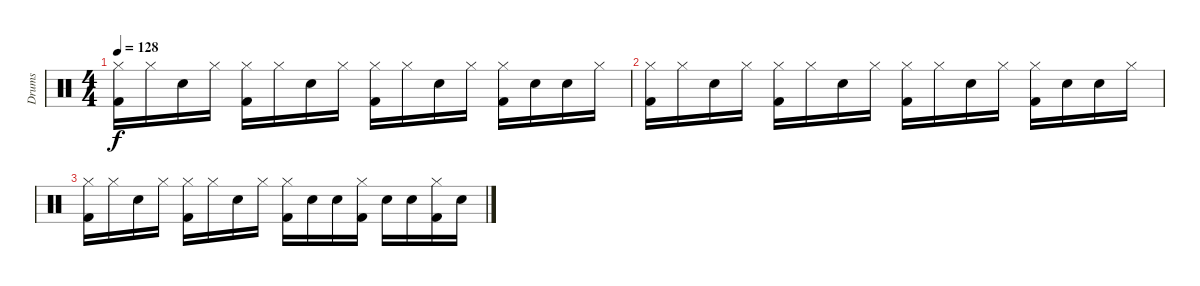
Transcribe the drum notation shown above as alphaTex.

\track ("Drums" "Drums") {instrument percussion}
\staff {score}
\articulation defaults
\ts (4 4)
\tempo 128
\clef neutral
\ks c
("Hi-Hat (closed)" "Kick (hit) 2").16{dy f} "Hi-Hat (closed)".16 "Snare (hit) 2".16 "Hi-Hat (closed)".16 ("Hi-Hat (closed)" "Kick (hit) 2").16 "Hi-Hat (closed)".16 "Snare (hit) 2".16 "Hi-Hat (closed)".16 ("Hi-Hat (closed)" "Kick (hit) 2").16 "Hi-Hat (closed)".16 "Snare (hit) 2".16 "Hi-Hat (closed)".16 ("Hi-Hat (closed)" "Kick (hit) 2").16 "Snare (hit) 2".16 "Snare (hit) 2".16 "Hi-Hat (closed)".16 |
("Hi-Hat (closed)" "Kick (hit) 2").16{volume 0} "Hi-Hat (closed)".16 "Snare (hit) 2".16 "Hi-Hat (closed)".16 ("Hi-Hat (closed)" "Kick (hit) 2").16 "Hi-Hat (closed)".16 "Snare (hit) 2".16 "Hi-Hat (closed)".16 ("Hi-Hat (closed)" "Kick (hit) 2").16 "Hi-Hat (closed)".16 "Snare (hit) 2".16 "Hi-Hat (closed)".16 ("Hi-Hat (closed)" "Kick (hit) 2").16 "Snare (hit) 2".16 "Snare (hit) 2".16 "Hi-Hat (closed)".16 |
("Hi-Hat (closed)" "Kick (hit) 2").16 "Hi-Hat (closed)".16 "Snare (hit) 2".16 "Hi-Hat (closed)".16 ("Hi-Hat (closed)" "Kick (hit) 2").16 "Hi-Hat (closed)".16 "Snare (hit) 2".16 "Hi-Hat (closed)".16 ("Hi-Hat (closed)" "Kick (hit) 2").16 "Snare (hit) 2".16 "Snare (hit) 2".16 ("Hi-Hat (closed)" "Kick (hit) 2").16 "Snare (hit) 2".16 "Snare (hit) 2".16 ("Hi-Hat (closed)" "Kick (hit) 2").16 "Snare (hit) 2".16
